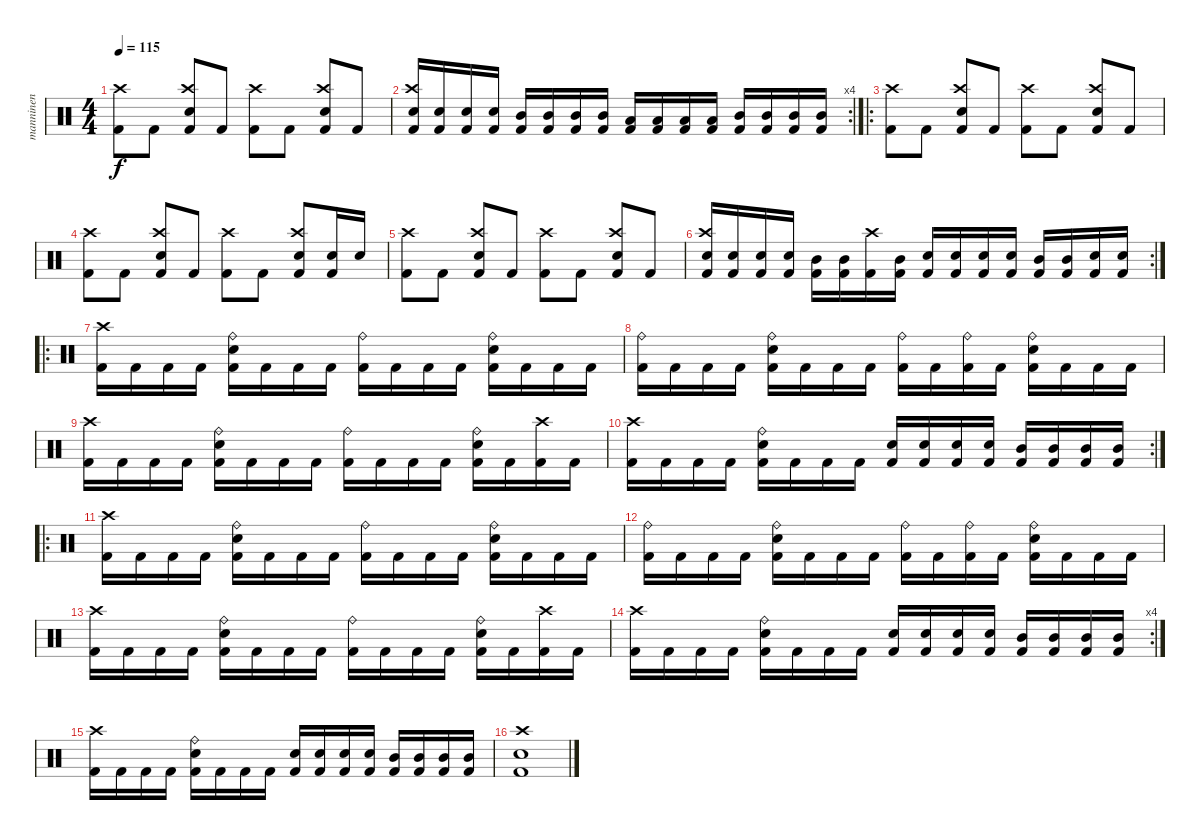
\track ("manninen" "manninen") {instrument percussion}
\staff {score}
\articulation defaults
\ts (4 4)
\tempo 115
\clef neutral
\ks c
("Kick (hit) 2" "Crash high (hit)").8{dy f} "Kick (hit) 2".8 ("Kick (hit) 2" "Crash high (hit)" "Electric Snare (hit)").8 "Kick (hit) 2".8 ("Kick (hit) 2" "Crash high (hit)").8 "Kick (hit) 2".8 ("Kick (hit) 2" "Crash high (hit)" "Electric Snare (hit)").8 "Kick (hit) 2".8 |
\rc 4
("Kick (hit) 2" "Crash high (hit)" "Electric Snare (hit)").16 ("Kick (hit) 2" "Electric Snare (hit)").16 ("Kick (hit) 2" "Electric Snare (hit)").16 ("Kick (hit) 2" "Electric Snare (hit)").16 ("Kick (hit) 2" "Mid Tom (hit)").16 ("Kick (hit) 2" "Mid Tom (hit)").16 ("Kick (hit) 2" "Mid Tom (hit)").16 ("Kick (hit) 2" "Mid Tom (hit)").16 ("Kick (hit) 2" "Low Tom (hit)").16 ("Kick (hit) 2" "Low Tom (hit)").16 ("Kick (hit) 2" "Low Tom (hit)").16 ("Kick (hit) 2" "Low Tom (hit)").16 ("Kick (hit) 2" "Mid Tom (hit)").16 ("Kick (hit) 2" "Mid Tom (hit)").16 ("Kick (hit) 2" "Mid Tom (hit)").16 ("Kick (hit) 2" "Mid Tom (hit)").16 |
\ro
("Kick (hit) 2" "Crash high (hit)").8 "Kick (hit) 2".8 ("Kick (hit) 2" "Crash high (hit)" "Electric Snare (hit)").8 "Kick (hit) 2".8 ("Kick (hit) 2" "Crash high (hit)").8 "Kick (hit) 2".8 ("Kick (hit) 2" "Crash high (hit)" "Electric Snare (hit)").8 "Kick (hit) 2".8 |
("Kick (hit) 2" "Crash high (hit)").8 "Kick (hit) 2".8 ("Kick (hit) 2" "Crash high (hit)" "Electric Snare (hit)").8 "Kick (hit) 2".8 ("Kick (hit) 2" "Crash high (hit)").8 "Kick (hit) 2".8 ("Kick (hit) 2" "Crash high (hit)" "Electric Snare (hit)").8 ("Kick (hit) 2" "Electric Snare (hit)").16 "Electric Snare (hit)".16 |
("Kick (hit) 2" "Crash high (hit)").8 "Kick (hit) 2".8 ("Kick (hit) 2" "Crash high (hit)" "Electric Snare (hit)").8 "Kick (hit) 2".8 ("Kick (hit) 2" "Crash high (hit)").8 "Kick (hit) 2".8 ("Kick (hit) 2" "Crash high (hit)" "Electric Snare (hit)").8 "Kick (hit) 2".8 |
\rc 2
("Kick (hit) 2" "Crash high (hit)" "Electric Snare (hit)").16 ("Kick (hit) 2" "Electric Snare (hit)").16 ("Kick (hit) 2" "Electric Snare (hit)").16 ("Kick (hit) 2" "Electric Snare (hit)").16 ("Kick (hit) 2" "Mid Tom (hit)").16 ("Kick (hit) 2" "Mid Tom (hit)").16 ("Kick (hit) 2" "Crash high (hit)").16 ("Kick (hit) 2" "Mid Tom (hit)").16 ("Kick (hit) 2" "Electric Snare (hit)").16 ("Kick (hit) 2" "Electric Snare (hit)").16 ("Kick (hit) 2" "Electric Snare (hit)").16 ("Kick (hit) 2" "Electric Snare (hit)").16 ("Kick (hit) 2" "Mid Tom (hit)").16 ("Kick (hit) 2" "Mid Tom (hit)").16 ("Kick (hit) 2" "Electric Snare (hit)").16 ("Kick (hit) 2" "Electric Snare (hit)").16 |
\ro
("Kick (hit) 2" "Crash high (hit)").16 "Kick (hit) 2".16 "Kick (hit) 2".16 "Kick (hit) 2".16 ("Kick (hit) 2" "Ride (bell)" "Electric Snare (hit)").16 "Kick (hit) 2".16 "Kick (hit) 2".16 "Kick (hit) 2".16 ("Kick (hit) 2" "Ride (bell)").16 "Kick (hit) 2".16 "Kick (hit) 2".16 "Kick (hit) 2".16 ("Kick (hit) 2" "Ride (bell)" "Electric Snare (hit)").16 "Kick (hit) 2".16 "Kick (hit) 2".16 "Kick (hit) 2".16 |
("Kick (hit) 2" "Ride (bell)").16 "Kick (hit) 2".16 "Kick (hit) 2".16 "Kick (hit) 2".16 ("Kick (hit) 2" "Ride (bell)" "Electric Snare (hit)").16 "Kick (hit) 2".16 "Kick (hit) 2".16 "Kick (hit) 2".16 ("Kick (hit) 2" "Ride (bell)").16 "Kick (hit) 2".16 ("Kick (hit) 2" "Ride (bell)").16 "Kick (hit) 2".16 ("Kick (hit) 2" "Ride (bell)" "Electric Snare (hit)").16 "Kick (hit) 2".16 "Kick (hit) 2".16 "Kick (hit) 2".16 |
("Kick (hit) 2" "Crash high (hit)").16 "Kick (hit) 2".16 "Kick (hit) 2".16 "Kick (hit) 2".16 ("Kick (hit) 2" "Ride (bell)" "Electric Snare (hit)").16 "Kick (hit) 2".16 "Kick (hit) 2".16 "Kick (hit) 2".16 ("Kick (hit) 2" "Ride (bell)").16 "Kick (hit) 2".16 "Kick (hit) 2".16 "Kick (hit) 2".16 ("Kick (hit) 2" "Ride (bell)" "Electric Snare (hit)").16 "Kick (hit) 2".16 ("Kick (hit) 2" "Crash high (hit)").16 "Kick (hit) 2".16 |
\rc 2
("Kick (hit) 2" "Crash high (hit)").16 "Kick (hit) 2".16 "Kick (hit) 2".16 "Kick (hit) 2".16 ("Kick (hit) 2" "Ride (bell)" "Electric Snare (hit)").16 "Kick (hit) 2".16 "Kick (hit) 2".16 "Kick (hit) 2".16 ("Kick (hit) 2" "Electric Snare (hit)").16 ("Kick (hit) 2" "Electric Snare (hit)").16 ("Kick (hit) 2" "Electric Snare (hit)").16 ("Kick (hit) 2" "Electric Snare (hit)").16 ("Kick (hit) 2" "Mid Tom (hit)").16 ("Kick (hit) 2" "Mid Tom (hit)").16 ("Kick (hit) 2" "Mid Tom (hit)").16 ("Kick (hit) 2" "Mid Tom (hit)").16 |
\ro
("Kick (hit) 2" "Crash high (hit)").16 "Kick (hit) 2".16 "Kick (hit) 2".16 "Kick (hit) 2".16 ("Kick (hit) 2" "Ride (bell)" "Electric Snare (hit)").16 "Kick (hit) 2".16 "Kick (hit) 2".16 "Kick (hit) 2".16 ("Kick (hit) 2" "Ride (bell)").16 "Kick (hit) 2".16 "Kick (hit) 2".16 "Kick (hit) 2".16 ("Kick (hit) 2" "Ride (bell)" "Electric Snare (hit)").16 "Kick (hit) 2".16 "Kick (hit) 2".16 "Kick (hit) 2".16 |
("Kick (hit) 2" "Ride (bell)").16 "Kick (hit) 2".16 "Kick (hit) 2".16 "Kick (hit) 2".16 ("Kick (hit) 2" "Ride (bell)" "Electric Snare (hit)").16 "Kick (hit) 2".16 "Kick (hit) 2".16 "Kick (hit) 2".16 ("Kick (hit) 2" "Ride (bell)").16 "Kick (hit) 2".16 ("Kick (hit) 2" "Ride (bell)").16 "Kick (hit) 2".16 ("Kick (hit) 2" "Ride (bell)" "Electric Snare (hit)").16 "Kick (hit) 2".16 "Kick (hit) 2".16 "Kick (hit) 2".16 |
("Kick (hit) 2" "Crash high (hit)").16 "Kick (hit) 2".16 "Kick (hit) 2".16 "Kick (hit) 2".16 ("Kick (hit) 2" "Ride (bell)" "Electric Snare (hit)").16 "Kick (hit) 2".16 "Kick (hit) 2".16 "Kick (hit) 2".16 ("Kick (hit) 2" "Ride (bell)").16 "Kick (hit) 2".16 "Kick (hit) 2".16 "Kick (hit) 2".16 ("Kick (hit) 2" "Ride (bell)" "Electric Snare (hit)").16 "Kick (hit) 2".16 ("Kick (hit) 2" "Crash high (hit)").16 "Kick (hit) 2".16 |
\rc 4
("Kick (hit) 2" "Crash high (hit)").16 "Kick (hit) 2".16 "Kick (hit) 2".16 "Kick (hit) 2".16 ("Kick (hit) 2" "Ride (bell)" "Electric Snare (hit)").16 "Kick (hit) 2".16 "Kick (hit) 2".16 "Kick (hit) 2".16 ("Kick (hit) 2" "Electric Snare (hit)").16 ("Kick (hit) 2" "Electric Snare (hit)").16 ("Kick (hit) 2" "Electric Snare (hit)").16 ("Kick (hit) 2" "Electric Snare (hit)").16 ("Kick (hit) 2" "Mid Tom (hit)").16 ("Kick (hit) 2" "Mid Tom (hit)").16 ("Kick (hit) 2" "Mid Tom (hit)").16 ("Kick (hit) 2" "Mid Tom (hit)").16 |
("Kick (hit) 2" "Crash high (hit)").16 "Kick (hit) 2".16 "Kick (hit) 2".16 "Kick (hit) 2".16 ("Kick (hit) 2" "Ride (bell)" "Electric Snare (hit)").16 "Kick (hit) 2".16 "Kick (hit) 2".16 "Kick (hit) 2".16 ("Kick (hit) 2" "Electric Snare (hit)").16 ("Kick (hit) 2" "Electric Snare (hit)").16 ("Kick (hit) 2" "Electric Snare (hit)").16 ("Kick (hit) 2" "Electric Snare (hit)").16 ("Kick (hit) 2" "Mid Tom (hit)").16 ("Kick (hit) 2" "Mid Tom (hit)").16 ("Kick (hit) 2" "Mid Tom (hit)").16 ("Kick (hit) 2" "Mid Tom (hit)").16 |
("Kick (hit) 2" "Crash high (hit)" "Electric Snare (hit)").1
